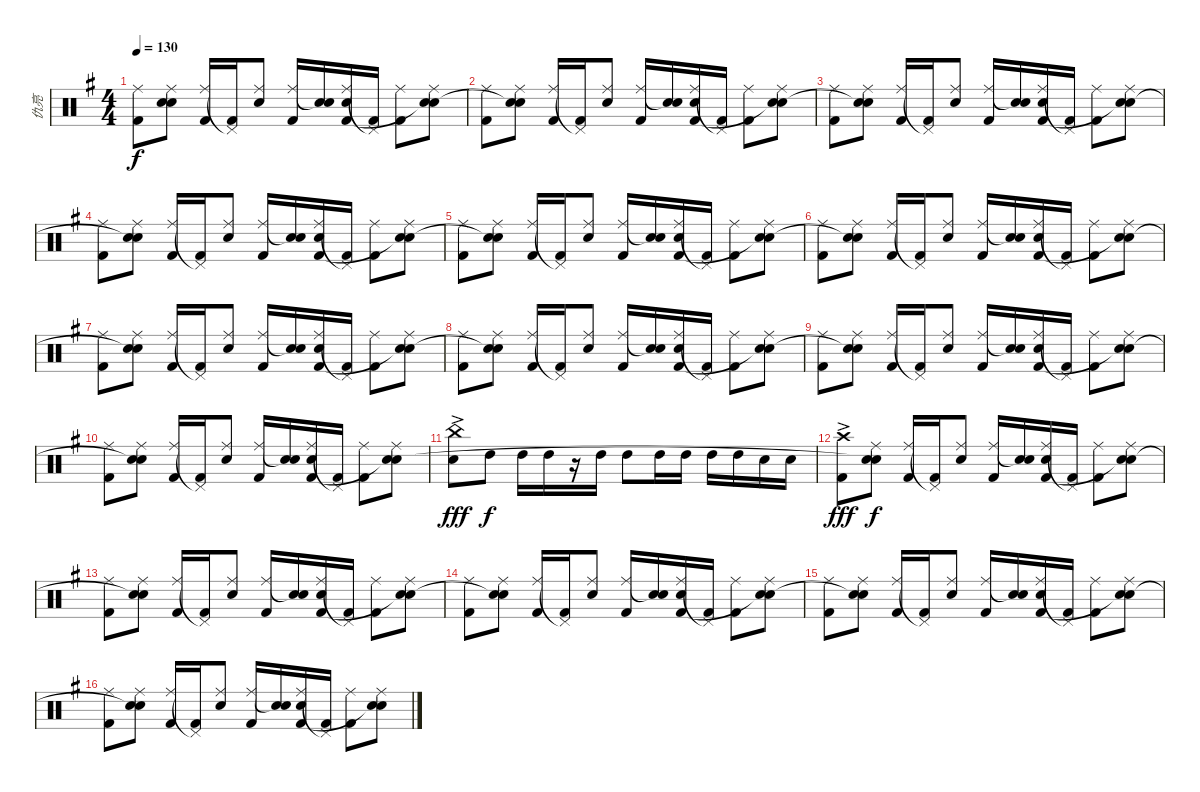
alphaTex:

\track ("仇亮" "仇亮") {instrument percussion}
\staff {score}
\articulation defaults
\ts (4 4)
\tempo 130
\clef neutral
\ks g
("Ride (middle)" "Kick (hit) 2").8{dy f} ("Ride (middle)" "Snare (hit) 2" "Snare (hit)"{t}).8 ("Ride (middle)" "Kick (hit) 2").16 ("Pedal Hi-Hat (hit)"{t} "Kick (hit) 2").16 ("Ride (middle)" "Snare (hit) 2").8 ("Ride (middle)" "Kick (hit) 2").16 ("Snare (hit)"{t} "Snare (hit)").16 ("Ride (middle)" "Snare (hit) 2" "Kick (hit) 2").16 ("Pedal Hi-Hat (hit)"{t} "Kick (hit) 2").16 ("Ride (middle)" "Kick (hit) 2").8 ("Ride (middle)" "Snare (hit) 2" "Snare (hit)"{t}).8 |
("Ride (middle)" "Kick (hit) 2").8 ("Ride (middle)" "Snare (hit) 2" "Snare (hit)"{t}).8 ("Ride (middle)" "Kick (hit) 2").16 ("Pedal Hi-Hat (hit)"{t} "Kick (hit) 2").16 ("Ride (middle)" "Snare (hit) 2").8 ("Ride (middle)" "Kick (hit) 2").16 ("Snare (hit)"{t} "Snare (hit)").16 ("Ride (middle)" "Snare (hit) 2" "Kick (hit) 2").16 ("Pedal Hi-Hat (hit)"{t} "Kick (hit) 2").16 ("Ride (middle)" "Kick (hit) 2").8 ("Ride (middle)" "Snare (hit) 2" "Snare (hit)"{t}).8 |
("Ride (middle)" "Kick (hit) 2").8 ("Ride (middle)" "Snare (hit) 2" "Snare (hit)"{t}).8 ("Ride (middle)" "Kick (hit) 2").16 ("Pedal Hi-Hat (hit)"{t} "Kick (hit) 2").16 ("Ride (middle)" "Snare (hit) 2").8 ("Ride (middle)" "Kick (hit) 2").16 ("Snare (hit)"{t} "Snare (hit)").16 ("Ride (middle)" "Snare (hit) 2" "Kick (hit) 2").16 ("Pedal Hi-Hat (hit)"{t} "Kick (hit) 2").16 ("Ride (middle)" "Kick (hit) 2").8 ("Ride (middle)" "Snare (hit) 2" "Snare (hit)"{t}).8 |
("Ride (middle)" "Kick (hit) 2").8 ("Ride (middle)" "Snare (hit) 2" "Snare (hit)"{t}).8 ("Ride (middle)" "Kick (hit) 2").16 ("Pedal Hi-Hat (hit)"{t} "Kick (hit) 2").16 ("Ride (middle)" "Snare (hit) 2").8 ("Ride (middle)" "Kick (hit) 2").16 ("Snare (hit)"{t} "Snare (hit)").16 ("Ride (middle)" "Snare (hit) 2" "Kick (hit) 2").16 ("Pedal Hi-Hat (hit)"{t} "Kick (hit) 2").16 ("Ride (middle)" "Kick (hit) 2").8 ("Ride (middle)" "Snare (hit) 2" "Snare (hit)"{t}).8 |
("Ride (middle)" "Kick (hit) 2").8 ("Ride (middle)" "Snare (hit) 2" "Snare (hit)"{t}).8 ("Ride (middle)" "Kick (hit) 2").16 ("Pedal Hi-Hat (hit)"{t} "Kick (hit) 2").16 ("Ride (middle)" "Snare (hit) 2").8 ("Ride (middle)" "Kick (hit) 2").16 ("Snare (hit)"{t} "Snare (hit)").16 ("Ride (middle)" "Snare (hit) 2" "Kick (hit) 2").16 ("Pedal Hi-Hat (hit)"{t} "Kick (hit) 2").16 ("Ride (middle)" "Kick (hit) 2").8 ("Ride (middle)" "Snare (hit) 2" "Snare (hit)"{t}).8 |
("Ride (middle)" "Kick (hit) 2").8 ("Ride (middle)" "Snare (hit) 2" "Snare (hit)"{t}).8 ("Ride (middle)" "Kick (hit) 2").16 ("Pedal Hi-Hat (hit)"{t} "Kick (hit) 2").16 ("Ride (middle)" "Snare (hit) 2").8 ("Ride (middle)" "Kick (hit) 2").16 ("Snare (hit)"{t} "Snare (hit)").16 ("Ride (middle)" "Snare (hit) 2" "Kick (hit) 2").16 ("Pedal Hi-Hat (hit)"{t} "Kick (hit) 2").16 ("Ride (middle)" "Kick (hit) 2").8 ("Ride (middle)" "Snare (hit) 2" "Snare (hit)"{t}).8 |
("Ride (middle)" "Kick (hit) 2").8 ("Ride (middle)" "Snare (hit) 2" "Snare (hit)"{t}).8 ("Ride (middle)" "Kick (hit) 2").16 ("Pedal Hi-Hat (hit)"{t} "Kick (hit) 2").16 ("Ride (middle)" "Snare (hit) 2").8 ("Ride (middle)" "Kick (hit) 2").16 ("Snare (hit)"{t} "Snare (hit)").16 ("Ride (middle)" "Snare (hit) 2" "Kick (hit) 2").16 ("Pedal Hi-Hat (hit)"{t} "Kick (hit) 2").16 ("Ride (middle)" "Kick (hit) 2").8 ("Ride (middle)" "Snare (hit) 2" "Snare (hit)"{t}).8 |
("Ride (middle)" "Kick (hit) 2").8 ("Ride (middle)" "Snare (hit) 2" "Snare (hit)"{t}).8 ("Ride (middle)" "Kick (hit) 2").16 ("Pedal Hi-Hat (hit)"{t} "Kick (hit) 2").16 ("Ride (middle)" "Snare (hit) 2").8 ("Ride (middle)" "Kick (hit) 2").16 ("Snare (hit)"{t} "Snare (hit)").16 ("Ride (middle)" "Snare (hit) 2" "Kick (hit) 2").16 ("Pedal Hi-Hat (hit)"{t} "Kick (hit) 2").16 ("Ride (middle)" "Kick (hit) 2").8 ("Ride (middle)" "Snare (hit) 2" "Snare (hit)"{t}).8 |
("Ride (middle)" "Kick (hit) 2").8 ("Ride (middle)" "Snare (hit) 2" "Snare (hit)"{t}).8 ("Ride (middle)" "Kick (hit) 2").16 ("Pedal Hi-Hat (hit)"{t} "Kick (hit) 2").16 ("Ride (middle)" "Snare (hit) 2").8 ("Ride (middle)" "Kick (hit) 2").16 ("Snare (hit)"{t} "Snare (hit)").16 ("Ride (middle)" "Snare (hit) 2" "Kick (hit) 2").16 ("Pedal Hi-Hat (hit)"{t} "Kick (hit) 2").16 ("Ride (middle)" "Kick (hit) 2").8 ("Ride (middle)" "Snare (hit) 2" "Snare (hit)"{t}).8 |
("Ride (middle)" "Kick (hit) 2").8 ("Ride (middle)" "Snare (hit) 2" "Snare (hit)"{t}).8 ("Ride (middle)" "Kick (hit) 2").16 ("Pedal Hi-Hat (hit)"{t} "Kick (hit) 2").16 ("Ride (middle)" "Snare (hit) 2").8 ("Ride (middle)" "Kick (hit) 2").16 ("Snare (hit)"{t} "Snare (hit)").16 ("Ride (middle)" "Snare (hit) 2" "Kick (hit) 2").16 ("Pedal Hi-Hat (hit)"{t} "Kick (hit) 2").16 ("Ride (middle)" "Kick (hit) 2").8 ("Ride (middle)" "Snare (hit) 2" "Snare (hit)"{t}).8 |
("China (hit)"{ac} "Snare (hit) 2"{ac}).8{dy fff} "High Tom (hit)".8{dy f} "High Tom (hit)".16 "High Tom (hit)".16 r.16 "High Tom (hit)".16 "High Tom (hit)".8 "High Tom (hit)".16 "High Tom (hit)".16 "High Tom (hit)".16 "High Tom (hit)".16 "Snare (hit) 2".16 "Snare (hit) 2".16 |
("Crash high (hit)"{ac} "Kick (hit) 2"{ac}).8{dy fff} ("Ride (middle)" "Snare (hit) 2" "Snare (hit)"{t}).8{dy f} ("Ride (middle)" "Kick (hit) 2").16 ("Pedal Hi-Hat (hit)"{t} "Kick (hit) 2").16 ("Ride (middle)" "Snare (hit) 2").8 ("Ride (middle)" "Kick (hit) 2").16 ("Snare (hit)"{t} "Snare (hit)").16 ("Ride (middle)" "Snare (hit) 2" "Kick (hit) 2").16 ("Pedal Hi-Hat (hit)"{t} "Kick (hit) 2").16 ("Ride (middle)" "Kick (hit) 2").8 ("Ride (middle)" "Snare (hit) 2" "Snare (hit)"{t}).8 |
("Ride (middle)" "Kick (hit) 2").8 ("Ride (middle)" "Snare (hit) 2" "Snare (hit)"{t}).8 ("Ride (middle)" "Kick (hit) 2").16 ("Pedal Hi-Hat (hit)"{t} "Kick (hit) 2").16 ("Ride (middle)" "Snare (hit) 2").8 ("Ride (middle)" "Kick (hit) 2").16 ("Snare (hit)"{t} "Snare (hit)").16 ("Ride (middle)" "Snare (hit) 2" "Kick (hit) 2").16 ("Pedal Hi-Hat (hit)"{t} "Kick (hit) 2").16 ("Ride (middle)" "Kick (hit) 2").8 ("Ride (middle)" "Snare (hit) 2" "Snare (hit)"{t}).8 |
("Ride (middle)" "Kick (hit) 2").8 ("Ride (middle)" "Snare (hit) 2" "Snare (hit)"{t}).8 ("Ride (middle)" "Kick (hit) 2").16 ("Pedal Hi-Hat (hit)"{t} "Kick (hit) 2").16 ("Ride (middle)" "Snare (hit) 2").8 ("Ride (middle)" "Kick (hit) 2").16 ("Snare (hit)"{t} "Snare (hit)").16 ("Ride (middle)" "Snare (hit) 2" "Kick (hit) 2").16 ("Pedal Hi-Hat (hit)"{t} "Kick (hit) 2").16 ("Ride (middle)" "Kick (hit) 2").8 ("Ride (middle)" "Snare (hit) 2" "Snare (hit)"{t}).8 |
("Ride (middle)" "Kick (hit) 2").8 ("Ride (middle)" "Snare (hit) 2" "Snare (hit)"{t}).8 ("Ride (middle)" "Kick (hit) 2").16 ("Pedal Hi-Hat (hit)"{t} "Kick (hit) 2").16 ("Ride (middle)" "Snare (hit) 2").8 ("Ride (middle)" "Kick (hit) 2").16 ("Snare (hit)"{t} "Snare (hit)").16 ("Ride (middle)" "Snare (hit) 2" "Kick (hit) 2").16 ("Pedal Hi-Hat (hit)"{t} "Kick (hit) 2").16 ("Ride (middle)" "Kick (hit) 2").8 ("Ride (middle)" "Snare (hit) 2" "Snare (hit)"{t}).8 |
("Ride (middle)" "Kick (hit) 2").8 ("Ride (middle)" "Snare (hit) 2" "Snare (hit)"{t}).8 ("Ride (middle)" "Kick (hit) 2").16 ("Pedal Hi-Hat (hit)"{t} "Kick (hit) 2").16 ("Ride (middle)" "Snare (hit) 2").8 ("Ride (middle)" "Kick (hit) 2").16 ("Snare (hit)"{t} "Snare (hit)").16 ("Ride (middle)" "Snare (hit) 2" "Kick (hit) 2").16 ("Pedal Hi-Hat (hit)"{t} "Kick (hit) 2").16 ("Ride (middle)" "Kick (hit) 2").8 ("Ride (middle)" "Snare (hit) 2" "Snare (hit)"{t}).8
